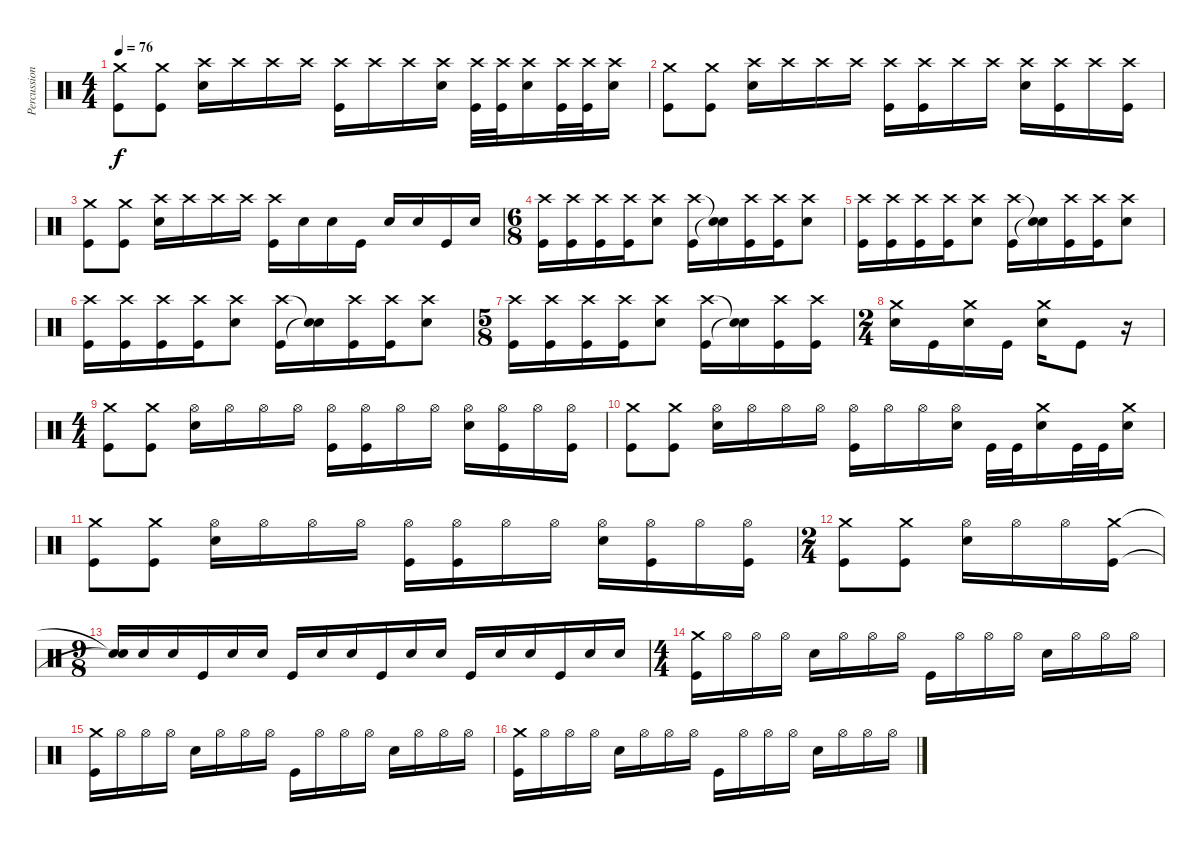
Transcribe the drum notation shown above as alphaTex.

\track ("Percussion" "Percussion") {instrument percussion}
\staff {score}
\articulation defaults
\ts (4 4)
\tempo 76
\clef neutral
\ks c
("Crash medium (hit)" "Kick (hit)").8{dy f} ("Crash medium (hit)" "Kick (hit)").8 ("Crash high (hit)" "Snare (hit) 2").16 "Crash high (hit)".16 "Crash high (hit)".16 "Crash high (hit)".16 ("Crash high (hit)" "Kick (hit)").16 "Crash high (hit)".16 "Crash high (hit)".16 ("Crash high (hit)" "Snare (hit) 2").16 ("Crash high (hit)" "Kick (hit)").32 ("Crash high (hit)" "Kick (hit)").32 ("Crash high (hit)" "Snare (hit) 2").16 ("Crash high (hit)" "Kick (hit)").32 ("Crash high (hit)" "Kick (hit)").32 ("Crash high (hit)" "Snare (hit) 2").16 |
("Crash medium (hit)" "Kick (hit)").8 ("Crash medium (hit)" "Kick (hit)").8 ("Crash high (hit)" "Snare (hit) 2").16 "Crash high (hit)".16 "Crash high (hit)".16 "Crash high (hit)".16 ("Crash high (hit)" "Kick (hit)").16 ("Crash high (hit)" "Kick (hit)").16 "Crash high (hit)".16 "Crash high (hit)".16 ("Crash high (hit)" "Snare (hit) 2").16 ("Crash high (hit)" "Kick (hit)").16 "Crash high (hit)".16 ("Crash high (hit)" "Kick (hit)").16 |
("Crash medium (hit)" "Kick (hit)").8 ("Crash medium (hit)" "Kick (hit)").8 ("Crash high (hit)" "Snare (hit) 2").16 "Crash high (hit)".16 "Crash high (hit)".16 "Crash high (hit)".16 ("Crash high (hit)" "Kick (hit)").16 "Snare (hit) 2".16 "Snare (hit) 2".16 "Kick (hit)".16 "Snare (hit) 2".16 "Snare (hit) 2".16 "Kick (hit)".16 "Snare (hit) 2".16 |
\ts (6 8)
("Crash high (hit)" "Kick (hit)").16 ("Crash high (hit)" "Kick (hit)").16 ("Crash high (hit)" "Kick (hit)").16 ("Crash high (hit)" "Kick (hit)").16 ("Crash high (hit)" "Snare (hit) 2").8 ("Crash high (hit)" "Kick (hit)").16 ("Snare (hit)"{t} "Snare (hit)"{t}).16 ("Crash high (hit)" "Kick (hit)").16 ("Crash high (hit)" "Kick (hit)").16 ("Crash high (hit)" "Snare (hit) 2").8 |
("Crash high (hit)" "Kick (hit)").16 ("Crash high (hit)" "Kick (hit)").16 ("Crash high (hit)" "Kick (hit)").16 ("Crash high (hit)" "Kick (hit)").16 ("Crash high (hit)" "Snare (hit) 2").8 ("Crash high (hit)" "Kick (hit)").16 ("Snare (hit)"{t} "Snare (hit)"{t}).16 ("Crash high (hit)" "Kick (hit)").16 ("Crash high (hit)" "Kick (hit)").16 ("Crash high (hit)" "Snare (hit) 2").8 |
("Crash high (hit)" "Kick (hit)").16 ("Crash high (hit)" "Kick (hit)").16 ("Crash high (hit)" "Kick (hit)").16 ("Crash high (hit)" "Kick (hit)").16 ("Crash high (hit)" "Snare (hit) 2").8 ("Crash high (hit)" "Kick (hit)").16 ("Snare (hit)"{t} "Snare (hit)"{t}).16 ("Crash high (hit)" "Kick (hit)").16 ("Crash high (hit)" "Kick (hit)").16 ("Crash high (hit)" "Snare (hit) 2").8 |
\ts (5 8)
("Crash high (hit)" "Kick (hit)").16 ("Crash high (hit)" "Kick (hit)").16 ("Crash high (hit)" "Kick (hit)").16 ("Crash high (hit)" "Kick (hit)").16 ("Crash high (hit)" "Snare (hit) 2").8 ("Crash high (hit)" "Kick (hit)").16 ("Snare (hit)"{t} "Snare (hit)"{t}).16 ("Crash high (hit)" "Kick (hit)").16 ("Crash high (hit)" "Kick (hit)").16 |
\ts (2 4)
("Crash medium (hit)" "Snare (hit) 2").16 "Kick (hit)".16 ("Crash medium (hit)" "Snare (hit) 2").16 "Kick (hit)".16 ("Crash medium (hit)" "Snare (hit) 2").16 "Kick (hit)".8 r.16 |
\ts (4 4)
("Crash medium (hit)" "Kick (hit)").8 ("Crash medium (hit)" "Kick (hit)").8 ("Hi-Hat (open)" "Snare (hit) 2").16 "Hi-Hat (open)".16 "Hi-Hat (open)".16 "Hi-Hat (open)".16 ("Hi-Hat (open)" "Kick (hit)").16 ("Hi-Hat (open)" "Kick (hit)").16 "Hi-Hat (open)".16 "Hi-Hat (open)".16 ("Hi-Hat (open)" "Snare (hit) 2").16 ("Hi-Hat (open)" "Kick (hit)").16 "Hi-Hat (open)".16 ("Hi-Hat (open)" "Kick (hit)").16 |
("Crash medium (hit)" "Kick (hit)").8 ("Crash medium (hit)" "Kick (hit)").8 ("Hi-Hat (open)" "Snare (hit) 2").16 "Hi-Hat (open)".16 "Hi-Hat (open)".16 "Hi-Hat (open)".16 ("Hi-Hat (open)" "Kick (hit)").16 "Hi-Hat (open)".16 "Hi-Hat (open)".16 ("Hi-Hat (open)" "Snare (hit) 2").16 "Kick (hit)".32 "Kick (hit)".32 ("Crash medium (hit)" "Snare (hit) 2").16 "Kick (hit)".32 "Kick (hit)".32 ("Crash medium (hit)" "Snare (hit) 2").16 |
("Crash medium (hit)" "Kick (hit)").8 ("Crash medium (hit)" "Kick (hit)").8 ("Hi-Hat (open)" "Snare (hit) 2").16 "Hi-Hat (open)".16 "Hi-Hat (open)".16 "Hi-Hat (open)".16 ("Hi-Hat (open)" "Kick (hit)").16 ("Hi-Hat (open)" "Kick (hit)").16 "Hi-Hat (open)".16 "Hi-Hat (open)".16 ("Hi-Hat (open)" "Snare (hit) 2").16 ("Hi-Hat (open)" "Kick (hit)").16 "Hi-Hat (open)".16 ("Hi-Hat (open)" "Kick (hit)").16 |
\ts (2 4)
("Crash medium (hit)" "Kick (hit)").8 ("Crash medium (hit)" "Kick (hit)").8 ("Hi-Hat (open)" "Snare (hit) 2").16 "Hi-Hat (open)".16 "Hi-Hat (open)".16 ("Crash medium (hit)" "Kick (hit)").16 |
\ts (9 8)
("Snare (hit)"{t} "Snare (hit)"{t}).16 "Snare (hit) 2".16 "Snare (hit) 2".16 "Kick (hit)".16 "Snare (hit) 2".16 "Snare (hit) 2".16 "Kick (hit)".16 "Snare (hit) 2".16 "Snare (hit) 2".16 "Kick (hit)".16 "Snare (hit) 2".16 "Snare (hit) 2".16 "Kick (hit)".16 "Snare (hit) 2".16 "Snare (hit) 2".16 "Kick (hit)".16 "Snare (hit) 2".16 "Snare (hit) 2".16 |
\ts (4 4)
("Crash medium (hit)" "Kick (hit)").16 "Hi-Hat (open)".16 "Hi-Hat (open)".16 "Hi-Hat (open)".16 "Snare (hit) 2".16 "Hi-Hat (open)".16 "Hi-Hat (open)".16 "Hi-Hat (open)".16 "Kick (hit)".16 "Hi-Hat (open)".16 "Hi-Hat (open)".16 "Hi-Hat (open)".16 "Snare (hit) 2".16 "Hi-Hat (open)".16 "Hi-Hat (open)".16 "Hi-Hat (open)".16 |
("Crash medium (hit)" "Kick (hit)").16 "Hi-Hat (open)".16 "Hi-Hat (open)".16 "Hi-Hat (open)".16 "Snare (hit) 2".16 "Hi-Hat (open)".16 "Hi-Hat (open)".16 "Hi-Hat (open)".16 "Kick (hit)".16 "Hi-Hat (open)".16 "Hi-Hat (open)".16 "Hi-Hat (open)".16 "Snare (hit) 2".16 "Hi-Hat (open)".16 "Hi-Hat (open)".16 "Hi-Hat (open)".16 |
("Crash medium (hit)" "Kick (hit)").16 "Hi-Hat (open)".16 "Hi-Hat (open)".16 "Hi-Hat (open)".16 "Snare (hit) 2".16 "Hi-Hat (open)".16 "Hi-Hat (open)".16 "Hi-Hat (open)".16 "Kick (hit)".16 "Hi-Hat (open)".16 "Hi-Hat (open)".16 "Hi-Hat (open)".16 "Snare (hit) 2".16 "Hi-Hat (open)".16 "Hi-Hat (open)".16 "Hi-Hat (open)".16
